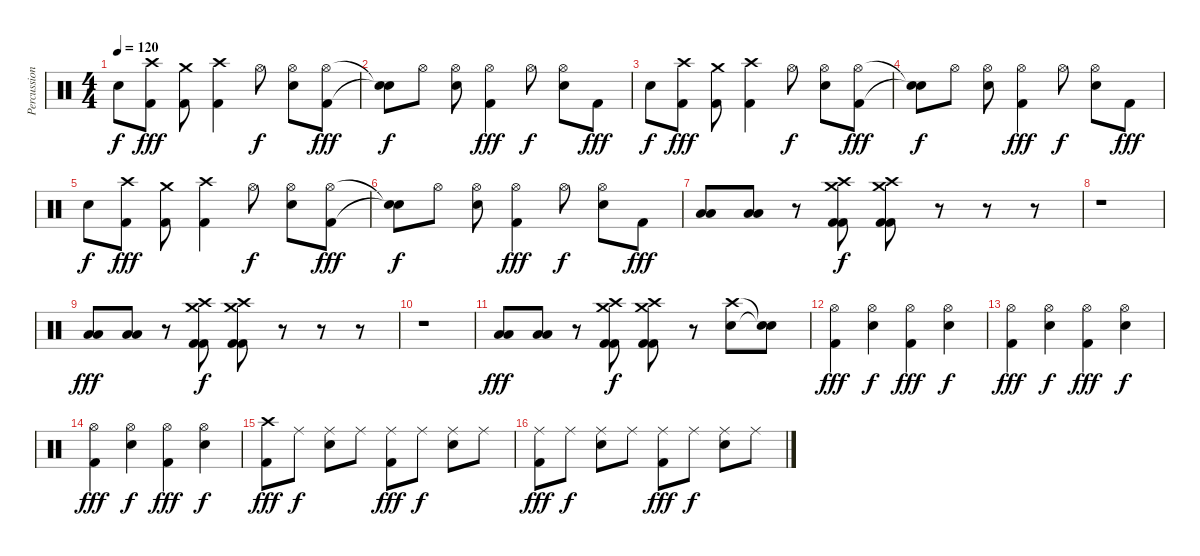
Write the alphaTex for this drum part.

\track ("Percussion" "Percussion") {instrument percussion}
\staff {score}
\articulation defaults
\ts (4 4)
\tempo 120
\clef neutral
\ks c "Snare (hit) 2".8{dy f}
("Crash high (hit)" "Kick (hit) 2").8{dy fff} ("Crash medium (hit)" "Kick (hit) 2").8 ("Crash high (hit)" "Kick (hit) 2").4 "Hi-Hat (open)".8{dy f} ("Hi-Hat (open)" "Snare (hit) 2").8 ("Hi-Hat (open)" "Kick (hit) 2").8{dy fff} |
("Snare (hit)"{t} "Snare (hit)"{t}).8{dy f} "Hi-Hat (open)".8 ("Hi-Hat (open)" "Snare (hit) 2").8 ("Hi-Hat (open)" "Kick (hit) 2").4{dy fff} "Hi-Hat (open)".8{dy f} ("Hi-Hat (open)" "Snare (hit) 2").8 "Kick (hit) 2".8{dy fff} |
"Snare (hit) 2".8{dy f} ("Crash high (hit)" "Kick (hit) 2").8{dy fff} ("Crash medium (hit)" "Kick (hit) 2").8 ("Crash high (hit)" "Kick (hit) 2").4 "Hi-Hat (open)".8{dy f} ("Hi-Hat (open)" "Snare (hit) 2").8 ("Hi-Hat (open)" "Kick (hit) 2").8{dy fff} |
("Snare (hit)"{t} "Snare (hit)"{t}).8{dy f} "Hi-Hat (open)".8 ("Hi-Hat (open)" "Snare (hit) 2").8 ("Hi-Hat (open)" "Kick (hit) 2").4{dy fff} "Hi-Hat (open)".8{dy f} ("Hi-Hat (open)" "Snare (hit) 2").8 "Kick (hit) 2".8{dy fff} |
"Snare (hit) 2".8{dy f} ("Crash high (hit)" "Kick (hit) 2").8{dy fff} ("Crash medium (hit)" "Kick (hit) 2").8 ("Crash high (hit)" "Kick (hit) 2").4 "Hi-Hat (open)".8{dy f} ("Hi-Hat (open)" "Snare (hit) 2").8 ("Hi-Hat (open)" "Kick (hit) 2").8{dy fff} |
("Snare (hit)"{t} "Snare (hit)"{t}).8{dy f} "Hi-Hat (open)".8 ("Hi-Hat (open)" "Snare (hit) 2").8 ("Hi-Hat (open)" "Kick (hit) 2").4{dy fff} "Hi-Hat (open)".8{dy f} ("Hi-Hat (open)" "Snare (hit) 2").8 "Kick (hit) 2".8{dy fff} |
("Low Tom (hit)" "Low Tom (hit)").8 ("Low Tom (hit)" "Low Tom (hit)").8 r.8 ("Crash medium (hit)" "Crash high (hit)" "Kick (hit) 2" "Kick (hit) 2").8{dy f} ("Crash medium (hit)" "Crash high (hit)" "Kick (hit) 2" "Kick (hit) 2").8 r.8 r.8 r.8 |
r.1 |
("Low Tom (hit)" "Low Tom (hit)").8{dy fff} ("Low Tom (hit)" "Low Tom (hit)").8 r.8 ("Crash medium (hit)" "Crash high (hit)" "Kick (hit) 2" "Kick (hit) 2").8{dy f} ("Crash medium (hit)" "Crash high (hit)" "Kick (hit) 2" "Kick (hit) 2").8 r.8 r.8 r.8 |
r.1 |
("Low Tom (hit)" "Low Tom (hit)").8{dy fff} ("Low Tom (hit)" "Low Tom (hit)").8 r.8 ("Crash medium (hit)" "Crash high (hit)" "Kick (hit) 2" "Kick (hit) 2").8{dy f} ("Crash medium (hit)" "Crash high (hit)" "Kick (hit) 2" "Kick (hit) 2").8 r.8 ("Crash high (hit)" "Snare (hit) 2").8 ("Snare (hit)"{t} "Snare (hit)"{t}).8 |
("Hi-Hat (open)" "Kick (hit) 2").4{dy fff} ("Hi-Hat (open)" "Snare (hit) 2").4{dy f} ("Hi-Hat (open)" "Kick (hit) 2").4{dy fff} ("Hi-Hat (open)" "Snare (hit) 2").4{dy f} |
("Hi-Hat (open)" "Kick (hit) 2").4{dy fff} ("Hi-Hat (open)" "Snare (hit) 2").4{dy f} ("Hi-Hat (open)" "Kick (hit) 2").4{dy fff} ("Hi-Hat (open)" "Snare (hit) 2").4{dy f} |
("Hi-Hat (open)" "Kick (hit) 2").4{dy fff} ("Hi-Hat (open)" "Snare (hit) 2").4{dy f} ("Hi-Hat (open)" "Kick (hit) 2").4{dy fff} ("Hi-Hat (open)" "Snare (hit) 2").4{dy f} |
("Crash high (hit)" "Kick (hit) 2").8{dy fff} "Ride (middle)".8{dy f} ("Ride (middle)" "Snare (hit) 2").8 "Ride (middle)".8 ("Ride (middle)" "Kick (hit) 2").8{dy fff} "Ride (middle)".8{dy f} ("Ride (middle)" "Snare (hit) 2").8 "Ride (middle)".8 |
("Ride (middle)" "Kick (hit) 2").8{dy fff} "Ride (middle)".8{dy f} ("Ride (middle)" "Snare (hit) 2").8 "Ride (middle)".8 ("Ride (middle)" "Kick (hit) 2").8{dy fff} "Ride (middle)".8{dy f} ("Ride (middle)" "Snare (hit) 2").8 "Ride (middle)".8
